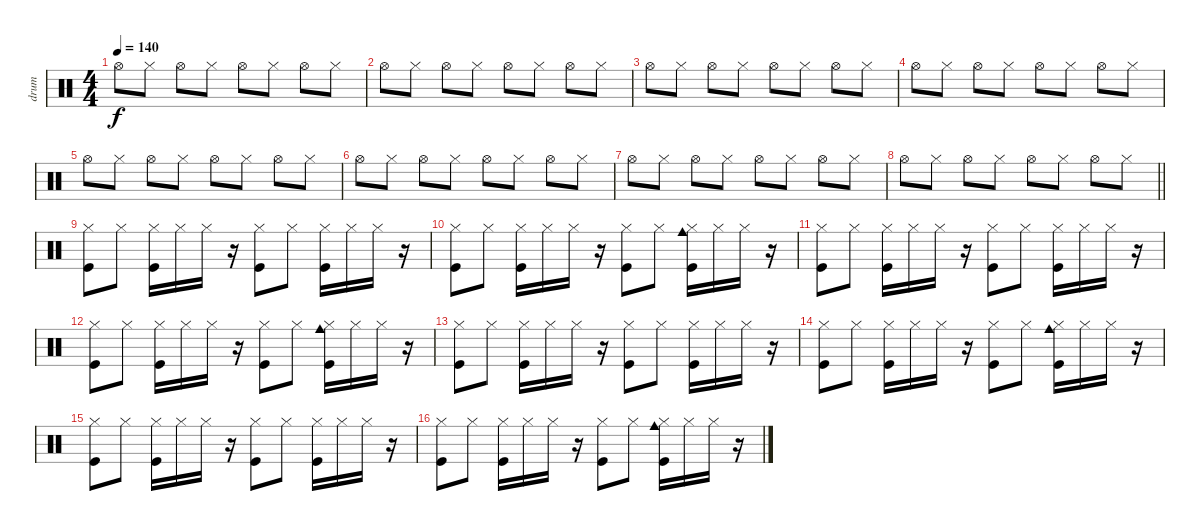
\track ("drum" "drum") {instrument percussion}
\staff {score}
\articulation defaults
\ts (4 4)
\tempo 140
\clef neutral
\ks c "Hi-Hat (open)".8{dy f} "Hi-Hat (closed)".8 "Hi-Hat (open)".8 "Hi-Hat (closed)".8 "Hi-Hat (open)".8 "Hi-Hat (closed)".8 "Hi-Hat (open)".8 "Hi-Hat (closed)".8
|
"Hi-Hat (open)".8 "Hi-Hat (closed)".8 "Hi-Hat (open)".8 "Hi-Hat (closed)".8 "Hi-Hat (open)".8 "Hi-Hat (closed)".8 "Hi-Hat (open)".8 "Hi-Hat (closed)".8 |
"Hi-Hat (open)".8 "Hi-Hat (closed)".8 "Hi-Hat (open)".8 "Hi-Hat (closed)".8 "Hi-Hat (open)".8 "Hi-Hat (closed)".8 "Hi-Hat (open)".8 "Hi-Hat (closed)".8 |
"Hi-Hat (open)".8 "Hi-Hat (closed)".8 "Hi-Hat (open)".8 "Hi-Hat (closed)".8 "Hi-Hat (open)".8 "Hi-Hat (closed)".8 "Hi-Hat (open)".8 "Hi-Hat (closed)".8 |
"Hi-Hat (open)".8 "Hi-Hat (closed)".8 "Hi-Hat (open)".8 "Hi-Hat (closed)".8 "Hi-Hat (open)".8 "Hi-Hat (closed)".8 "Hi-Hat (open)".8 "Hi-Hat (closed)".8 |
"Hi-Hat (open)".8 "Hi-Hat (closed)".8 "Hi-Hat (open)".8 "Hi-Hat (closed)".8 "Hi-Hat (open)".8 "Hi-Hat (closed)".8 "Hi-Hat (open)".8 "Hi-Hat (closed)".8 |
"Hi-Hat (open)".8 "Hi-Hat (closed)".8 "Hi-Hat (open)".8 "Hi-Hat (closed)".8 "Hi-Hat (open)".8 "Hi-Hat (closed)".8 "Hi-Hat (open)".8 "Hi-Hat (closed)".8 |
\barLineRight lightlight "Hi-Hat (open)".8 "Hi-Hat (closed)".8 "Hi-Hat (open)".8 "Hi-Hat (closed)".8 "Hi-Hat (open)".8 "Hi-Hat (closed)".8 "Hi-Hat (open)".8 "Hi-Hat (closed)".8
|
("Hi-Hat (closed)" "Kick (hit)").8 "Hi-Hat (closed)".8 ("Hi-Hat (closed)" "Kick (hit)").16 "Hi-Hat (closed)".16 "Hi-Hat (closed)".16 r.16 ("Hi-Hat (closed)" "Kick (hit)").8 "Hi-Hat (closed)".8 ("Hi-Hat (closed)" "Kick (hit)").16 "Hi-Hat (closed)".16 "Hi-Hat (closed)".16 r.16 |
("Hi-Hat (closed)" "Kick (hit)").8 "Hi-Hat (closed)".8 ("Hi-Hat (closed)" "Kick (hit)").16 "Hi-Hat (closed)".16 "Hi-Hat (closed)".16 r.16 ("Hi-Hat (closed)" "Kick (hit)").8 "Hi-Hat (closed)".8 ("Hi-Hat (closed)" "Cowbell medium (hit)" "Kick (hit)").16 "Hi-Hat (closed)".16 "Hi-Hat (closed)".16 r.16 |
("Hi-Hat (closed)" "Kick (hit)").8 "Hi-Hat (closed)".8 ("Hi-Hat (closed)" "Kick (hit)").16 "Hi-Hat (closed)".16 "Hi-Hat (closed)".16 r.16 ("Hi-Hat (closed)" "Kick (hit)").8 "Hi-Hat (closed)".8 ("Hi-Hat (closed)" "Kick (hit)").16 "Hi-Hat (closed)".16 "Hi-Hat (closed)".16 r.16 |
("Hi-Hat (closed)" "Kick (hit)").8 "Hi-Hat (closed)".8 ("Hi-Hat (closed)" "Kick (hit)").16 "Hi-Hat (closed)".16 "Hi-Hat (closed)".16 r.16 ("Hi-Hat (closed)" "Kick (hit)").8 "Hi-Hat (closed)".8 ("Hi-Hat (closed)" "Cowbell medium (hit)" "Kick (hit)").16 "Hi-Hat (closed)".16 "Hi-Hat (closed)".16 r.16 |
("Hi-Hat (closed)" "Kick (hit)").8 "Hi-Hat (closed)".8 ("Hi-Hat (closed)" "Kick (hit)").16 "Hi-Hat (closed)".16 "Hi-Hat (closed)".16 r.16 ("Hi-Hat (closed)" "Kick (hit)").8 "Hi-Hat (closed)".8 ("Hi-Hat (closed)" "Kick (hit)").16 "Hi-Hat (closed)".16 "Hi-Hat (closed)".16 r.16 |
("Hi-Hat (closed)" "Kick (hit)").8 "Hi-Hat (closed)".8 ("Hi-Hat (closed)" "Kick (hit)").16 "Hi-Hat (closed)".16 "Hi-Hat (closed)".16 r.16 ("Hi-Hat (closed)" "Kick (hit)").8 "Hi-Hat (closed)".8 ("Hi-Hat (closed)" "Cowbell medium (hit)" "Kick (hit)").16 "Hi-Hat (closed)".16 "Hi-Hat (closed)".16 r.16 |
("Hi-Hat (closed)" "Kick (hit)").8 "Hi-Hat (closed)".8 ("Hi-Hat (closed)" "Kick (hit)").16 "Hi-Hat (closed)".16 "Hi-Hat (closed)".16 r.16 ("Hi-Hat (closed)" "Kick (hit)").8 "Hi-Hat (closed)".8 ("Hi-Hat (closed)" "Kick (hit)").16 "Hi-Hat (closed)".16 "Hi-Hat (closed)".16 r.16 |
("Hi-Hat (closed)" "Kick (hit)").8 "Hi-Hat (closed)".8 ("Hi-Hat (closed)" "Kick (hit)").16 "Hi-Hat (closed)".16 "Hi-Hat (closed)".16 r.16 ("Hi-Hat (closed)" "Kick (hit)").8 "Hi-Hat (closed)".8 ("Hi-Hat (closed)" "Cowbell medium (hit)" "Kick (hit)").16 "Hi-Hat (closed)".16 "Hi-Hat (closed)".16 r.16
